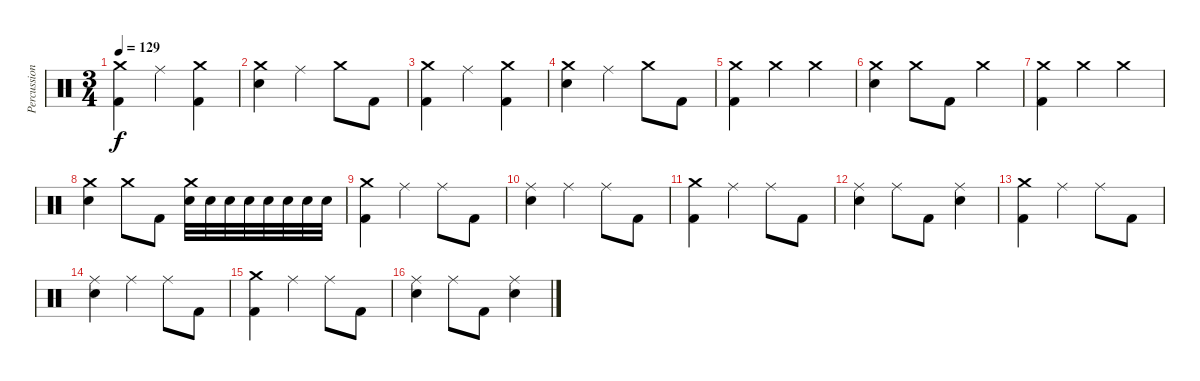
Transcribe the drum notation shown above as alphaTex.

\track ("Percussion" "Percussion") {instrument percussion}
\staff {score}
\articulation defaults
\ts (3 4)
\tempo 129
\clef neutral
\ks c
("Crash medium (hit)" "Kick (hit) 2").4{dy f} "Ride (middle)".4 ("Crash medium (hit)" "Kick (hit) 2").4 |
("Crash medium (hit)" "Electric Snare (hit)").4 "Ride (middle)".4 "Crash medium (hit)".8 "Kick (hit) 2".8 |
("Crash medium (hit)" "Kick (hit) 2").4 "Ride (middle)".4 ("Crash medium (hit)" "Kick (hit) 2").4 |
("Crash medium (hit)" "Electric Snare (hit)").4 "Ride (middle)".4 "Crash medium (hit)".8 "Kick (hit) 2".8 |
("Crash medium (hit)" "Kick (hit) 2").4 "Crash medium (hit)".4 "Crash medium (hit)".4 |
("Crash medium (hit)" "Electric Snare (hit)").4 "Crash medium (hit)".8 "Kick (hit) 2".8 "Crash medium (hit)".4 |
("Crash medium (hit)" "Kick (hit) 2").4 "Crash medium (hit)".4 "Crash medium (hit)".4 |
("Crash medium (hit)" "Electric Snare (hit)").4 "Crash medium (hit)".8 "Kick (hit) 2".8 ("Crash medium (hit)" "Electric Snare (hit)").32 "Electric Snare (hit)".32 "Electric Snare (hit)".32 "Electric Snare (hit)".32 "Electric Snare (hit)".32 "Electric Snare (hit)".32 "Electric Snare (hit)".32 "Electric Snare (hit)".32 |
("Crash medium (hit)" "Kick (hit) 2").4 "Ride (middle)".4 "Ride (middle)".8 "Kick (hit) 2".8 |
("Ride (middle)" "Electric Snare (hit)").4 "Ride (middle)".4 "Ride (middle)".8 "Kick (hit) 2".8 |
("Crash medium (hit)" "Kick (hit) 2").4 "Ride (middle)".4 "Ride (middle)".8 "Kick (hit) 2".8 |
("Ride (middle)" "Electric Snare (hit)").4 "Ride (middle)".8 "Kick (hit) 2".8 ("Ride (middle)" "Electric Snare (hit)").4 |
("Crash medium (hit)" "Kick (hit) 2").4 "Ride (middle)".4 "Ride (middle)".8 "Kick (hit) 2".8 |
("Ride (middle)" "Electric Snare (hit)").4 "Ride (middle)".4 "Ride (middle)".8 "Kick (hit) 2".8 |
("Crash medium (hit)" "Kick (hit) 2").4 "Ride (middle)".4 "Ride (middle)".8 "Kick (hit) 2".8 |
("Ride (middle)" "Electric Snare (hit)").4 "Ride (middle)".8 "Kick (hit) 2".8 ("Ride (middle)" "Electric Snare (hit)").4
